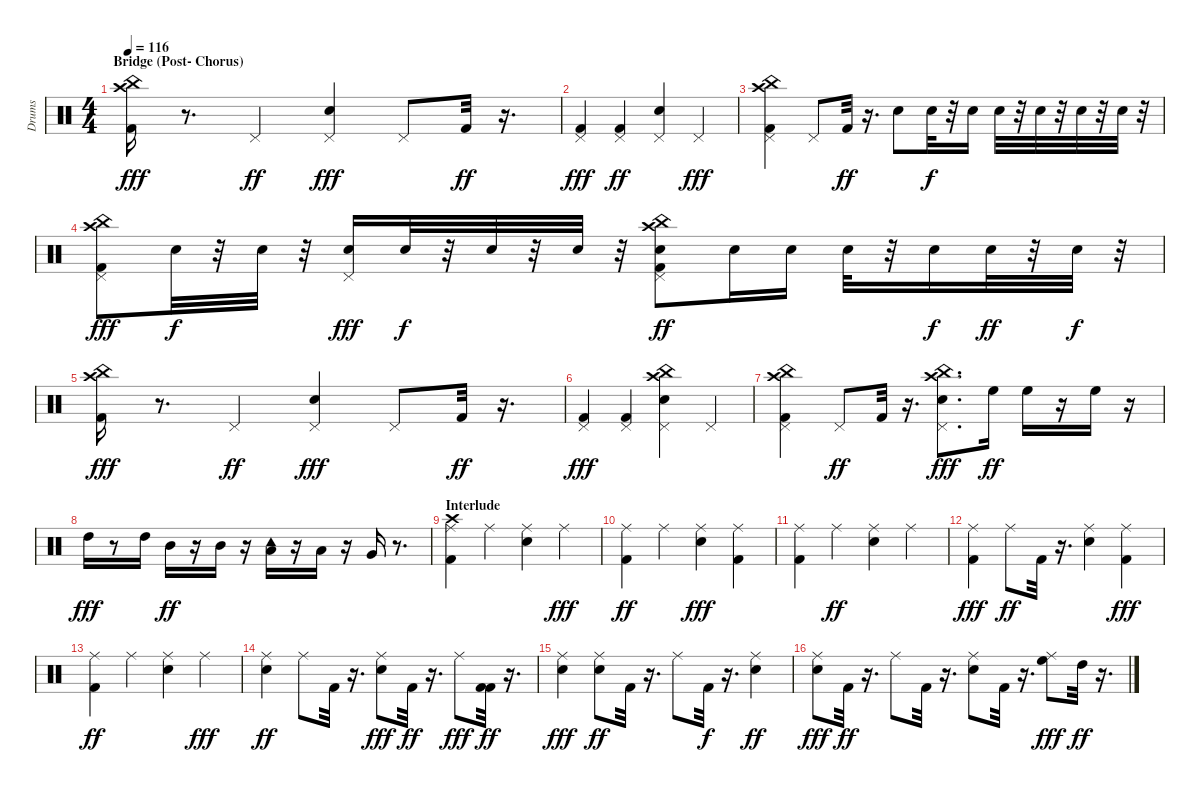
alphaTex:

\track ("Drums" "Drums") {instrument percussion}
\staff {score}
\articulation defaults
\ts (4 4)
\section ("" "Bridge (Post- Chorus)")
\tempo 116
\clef neutral
\ks c
("China (hit)" "Crash high (hit)" "Kick (hit) 2").16{dy fff} r.8{d} "Pedal Hi-Hat (hit)".4{dy ff} ("Snare (hit) 2" "Pedal Hi-Hat (hit)").4{dy fff} "Pedal Hi-Hat (hit)".8 "Kick (hit) 2".32{dy ff} r.16{d} |
("Kick (hit) 2" "Pedal Hi-Hat (hit)").4{dy fff} ("Kick (hit) 2" "Pedal Hi-Hat (hit)").4{dy ff} ("Snare (hit) 2" "Pedal Hi-Hat (hit)").4 "Pedal Hi-Hat (hit)".4{dy fff} |
("Crash high (hit)" "China (hit)" "Kick (hit) 2" "Pedal Hi-Hat (hit)").4 "Pedal Hi-Hat (hit)".8 "Kick (hit) 2".32{dy ff} r.16{d} "Snare (hit) 2".8 "Snare (hit) 2".32{dy f} r.32 "Snare (hit) 2".16 "Snare (hit) 2".32 r.32 "Snare (hit) 2".32 r.32 "Snare (hit) 2".32 r.32 "Snare (hit) 2".32 r.32 |
("Crash high (hit)" "China (hit)" "Kick (hit) 2" "Pedal Hi-Hat (hit)").8{dy fff} "Snare (hit) 2".32{dy f} r.32 "Snare (hit) 2".32 r.32 ("Snare (hit) 2" "Pedal Hi-Hat (hit)").16{dy fff} "Snare (hit) 2".32{dy f} r.32 "Snare (hit) 2".32 r.32 "Snare (hit) 2".32 r.32 ("China (hit)" "Crash high (hit)" "Kick (hit) 2" "Snare (hit) 2" "Pedal Hi-Hat (hit)").8{dy ff} "Snare (hit) 2".16 "Snare (hit) 2".16 "Snare (hit) 2".32 r.32 "Snare (hit) 2".16{dy f} "Snare (hit) 2".32{dy ff} r.32 "Snare (hit) 2".32{dy f} r.32 |
("China (hit)" "Crash high (hit)" "Kick (hit) 2").16{dy fff} r.8{d} "Pedal Hi-Hat (hit)".4{dy ff} ("Snare (hit) 2" "Pedal Hi-Hat (hit)").4{dy fff} "Pedal Hi-Hat (hit)".8 "Kick (hit) 2".32{dy ff} r.16{d} |
("Kick (hit) 2" "Pedal Hi-Hat (hit)").4{dy fff} ("Kick (hit) 2" "Pedal Hi-Hat (hit)").4 ("China (hit)" "Crash high (hit)" "Snare (hit) 2" "Pedal Hi-Hat (hit)").4 "Pedal Hi-Hat (hit)".4 |
("Crash high (hit)" "China (hit)" "Kick (hit) 2" "Pedal Hi-Hat (hit)").4 "Pedal Hi-Hat (hit)".8{dy ff} "Kick (hit) 2".32 r.16{d} ("China (hit)" "Crash high (hit)" "Snare (hit) 2" "Pedal Hi-Hat (hit)").8{d dy fff} "High Floor Tom (hit)".16{dy ff} "High Floor Tom (hit)".16 r.16 "High Floor Tom (hit)".16 r.16 |
"High Tom (hit)".16{dy fff} r.8 "High Tom (hit)".16 "Mid Tom (hit)".16{dy ff} r.16 "Mid Tom (hit)".16 r.16 ("Tambourine (hit)" "Low Tom (hit)").16 r.16 "Low Tom (hit)".16 r.16 "Very Low Tom (hit)".16 r.8{d} |
\section ("" "Interlude")
("Kick (hit) 2" "Crash high (hit)" "Ride (middle)").4 "Ride (middle)".4 ("Ride (middle)" "Snare (hit) 2").4 "Ride (middle)".4{dy fff} |
("Kick (hit) 2" "Ride (middle)").4{dy ff} "Ride (middle)".4 ("Snare (hit) 2" "Ride (middle)").4{dy fff} ("Kick (hit) 2" "Ride (middle)").4 |
("Kick (hit) 2" "Ride (middle)").4 "Ride (middle)".4{dy ff} ("Ride (middle)" "Snare (hit) 2").4 "Ride (middle)".4 |
("Kick (hit) 2" "Ride (middle)").4{dy fff} "Ride (middle)".8{dy ff} "Kick (hit) 2".32 r.16{d} ("Snare (hit) 2" "Ride (middle)").4 ("Kick (hit) 2" "Ride (middle)").4{dy fff} |
("Kick (hit) 2" "Ride (middle)").4{dy ff} "Ride (middle)".4 ("Ride (middle)" "Snare (hit) 2").4 "Ride (middle)".4{dy fff} |
("Snare (hit) 2" "Ride (middle)").4{dy ff} "Ride (middle)".8 "Kick (hit) 2".32 r.16{d} ("Snare (hit) 2" "Ride (middle)").8{dy fff} "Kick (hit) 2".32{dy ff} r.16{d} "Ride (middle)".8{dy fff} ("Kick (hit) 2" "Kick (hit) 2").32{dy ff} r.16{d} |
("Snare (hit) 2" "Ride (middle)").4{dy fff} ("Snare (hit) 2" "Ride (middle)").8{dy ff} "Kick (hit) 2".32 r.16{d} "Ride (middle)".8 "Kick (hit) 2".32{dy f} r.16{d} ("Snare (hit) 2" "Ride (middle)").4{dy ff} |
("Snare (hit) 2" "Ride (middle)").8{dy fff} "Kick (hit) 2".32{dy ff} r.16{d} "Ride (middle)".8 "Kick (hit) 2".32 r.16{d} ("Snare (hit) 2" "Ride (middle)").8 "Kick (hit) 2".32 r.16{d} ("High Floor Tom (hit)" "Ride (middle)").8{dy fff} "High Tom (hit)".32{dy ff} r.16{d}
